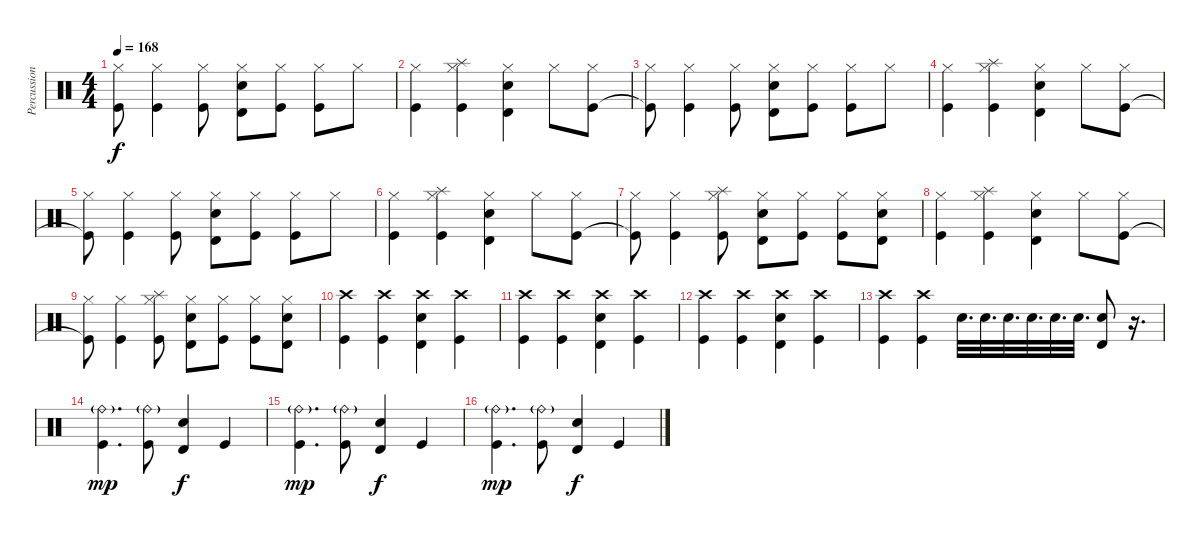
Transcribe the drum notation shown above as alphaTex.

\track ("Percussion" "Percussion") {instrument percussion}
\staff {score}
\articulation defaults
\ts (4 4)
\tempo 168
\clef neutral
\ks c
("Hi-Hat (closed)" "Kick (hit)"{t}).8{dy f} ("Hi-Hat (closed)" "Kick (hit)").4 ("Hi-Hat (closed)" "Kick (hit)").8 ("Hi-Hat (closed)" "Timbale high (hit)" "Electric Snare (hit)").8 ("Hi-Hat (closed)" "Kick (hit)").8 ("Hi-Hat (closed)" "Kick (hit)").8 "Hi-Hat (closed)".8 |
("Hi-Hat (closed)" "Kick (hit)").4 ("Hi-Hat (closed)" "Splash (hit)" "Kick (hit)").4 ("Hi-Hat (closed)" "Timbale high (hit)" "Electric Snare (hit)").4 "Hi-Hat (closed)".8 ("Hi-Hat (closed)" "Kick (hit)").8 |
("Hi-Hat (closed)" "Kick (hit)"{t}).8 ("Hi-Hat (closed)" "Kick (hit)").4 ("Hi-Hat (closed)" "Kick (hit)").8 ("Hi-Hat (closed)" "Timbale high (hit)" "Electric Snare (hit)").8 ("Hi-Hat (closed)" "Kick (hit)").8 ("Hi-Hat (closed)" "Kick (hit)").8 "Hi-Hat (closed)".8 |
("Hi-Hat (closed)" "Kick (hit)").4 ("Hi-Hat (closed)" "Splash (hit)" "Kick (hit)").4 ("Hi-Hat (closed)" "Timbale high (hit)" "Electric Snare (hit)").4 "Hi-Hat (closed)".8 ("Hi-Hat (closed)" "Kick (hit)").8 |
("Hi-Hat (closed)" "Kick (hit)"{t}).8 ("Hi-Hat (closed)" "Kick (hit)").4 ("Hi-Hat (closed)" "Kick (hit)").8 ("Hi-Hat (closed)" "Timbale high (hit)" "Electric Snare (hit)").8 ("Hi-Hat (closed)" "Kick (hit)").8 ("Hi-Hat (closed)" "Kick (hit)").8 "Hi-Hat (closed)".8 |
("Hi-Hat (closed)" "Kick (hit)").4 ("Hi-Hat (closed)" "Splash (hit)" "Kick (hit)").4 ("Hi-Hat (closed)" "Timbale high (hit)" "Electric Snare (hit)").4 "Hi-Hat (closed)".8 ("Hi-Hat (closed)" "Kick (hit)").8 |
("Hi-Hat (closed)" "Kick (hit)"{t}).8 ("Hi-Hat (closed)" "Kick (hit)").4 ("Hi-Hat (closed)" "Splash (hit)" "Kick (hit)").8 ("Hi-Hat (closed)" "Timbale high (hit)" "Electric Snare (hit)").8 ("Hi-Hat (closed)" "Kick (hit)").8 ("Hi-Hat (closed)" "Kick (hit)").8 ("Hi-Hat (closed)" "Timbale high (hit)" "Electric Snare (hit)").8 |
("Hi-Hat (closed)" "Kick (hit)").4 ("Hi-Hat (closed)" "Splash (hit)" "Kick (hit)").4 ("Hi-Hat (closed)" "Timbale high (hit)" "Electric Snare (hit)").4 "Hi-Hat (closed)".8 ("Hi-Hat (closed)" "Kick (hit)").8 |
("Hi-Hat (closed)" "Kick (hit)"{t}).8 ("Hi-Hat (closed)" "Kick (hit)").4 ("Hi-Hat (closed)" "Splash (hit)" "Kick (hit)").8 ("Hi-Hat (closed)" "Timbale high (hit)" "Electric Snare (hit)").8 ("Hi-Hat (closed)" "Kick (hit)").8 ("Hi-Hat (closed)" "Kick (hit)").8 ("Hi-Hat (closed)" "Timbale high (hit)" "Electric Snare (hit)").8 |
("Crash high (hit)" "Kick (hit)").4 ("Crash high (hit)" "Kick (hit)").4 ("Crash high (hit)" "Timbale high (hit)" "Electric Snare (hit)").4 ("Crash high (hit)" "Kick (hit)").4 |
("Crash high (hit)" "Kick (hit)").4 ("Crash high (hit)" "Kick (hit)").4 ("Crash high (hit)" "Timbale high (hit)" "Electric Snare (hit)").4 ("Crash high (hit)" "Kick (hit)").4 |
("Crash high (hit)" "Kick (hit)").4 ("Crash high (hit)" "Kick (hit)").4 ("Crash high (hit)" "Timbale high (hit)" "Electric Snare (hit)").4 ("Crash high (hit)" "Kick (hit)").4 |
("Crash high (hit)" "Kick (hit)").4 ("Crash high (hit)" "Kick (hit)").4 "Electric Snare (hit)".32{d} "Electric Snare (hit)".32{d} "Electric Snare (hit)".32{d} "Electric Snare (hit)".32{d} "Electric Snare (hit)".32{d} "Electric Snare (hit)".32{d} ("Electric Snare (hit)" "Timbale high (hit)").8 r.16{d} |
("Ride (bell)"{g} "Kick (hit)").4{d dy mp} ("Ride (bell)"{g} "Kick (hit)").8 ("Timbale high (hit)" "Electric Snare (hit)").4{dy f} "Kick (hit)".4 |
("Ride (bell)"{g} "Kick (hit)").4{d dy mp} ("Ride (bell)"{g} "Kick (hit)").8 ("Timbale high (hit)" "Electric Snare (hit)").4{dy f} "Kick (hit)".4 |
("Ride (bell)"{g} "Kick (hit)").4{d dy mp} ("Ride (bell)"{g} "Kick (hit)").8 ("Timbale high (hit)" "Electric Snare (hit)").4{dy f} "Kick (hit)".4
